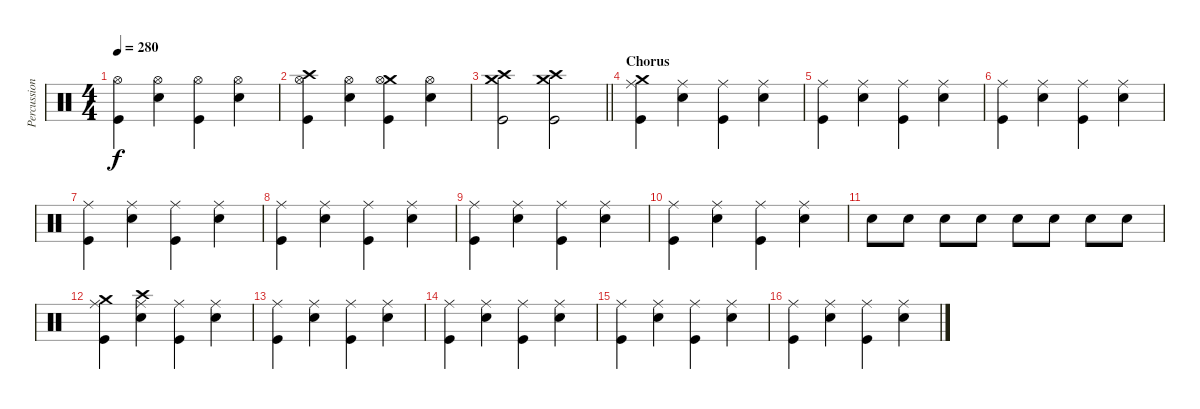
\track ("Percussion" "Percussion") {instrument percussion}
\staff {score}
\articulation defaults
\ts (4 4)
\tempo 280
\clef neutral
\ks c
("Hi-Hat (open)" "Kick (hit)").4{dy f} ("Hi-Hat (open)" "Snare (hit) 2").4 ("Hi-Hat (open)" "Kick (hit)").4 ("Hi-Hat (open)" "Snare (hit) 2").4 |
("Crash high (hit)" "Hi-Hat (open)" "Kick (hit)").4 ("Hi-Hat (open)" "Snare (hit) 2").4 ("Crash medium (hit)" "Hi-Hat (open)" "Kick (hit)").4 ("Hi-Hat (open)" "Snare (hit) 2").4 |
\barLineRight lightlight
("Crash medium (hit)" "Crash high (hit)" "Kick (hit)").2 ("Crash medium (hit)" "Crash high (hit)" "Kick (hit)").2 |
\section ("" "Chorus")
("Crash medium (hit)" "Ride (middle)" "Kick (hit)").4 ("Ride (middle)" "Snare (hit) 2").4 ("Ride (middle)" "Kick (hit)").4 ("Ride (middle)" "Snare (hit) 2").4 |
("Ride (middle)" "Kick (hit)").4 ("Ride (middle)" "Snare (hit) 2").4 ("Ride (middle)" "Kick (hit)").4 ("Ride (middle)" "Snare (hit) 2").4 |
("Ride (middle)" "Kick (hit)").4 ("Ride (middle)" "Snare (hit) 2").4 ("Ride (middle)" "Kick (hit)").4 ("Ride (middle)" "Snare (hit) 2").4 |
("Ride (middle)" "Kick (hit)").4 ("Ride (middle)" "Snare (hit) 2").4 ("Ride (middle)" "Kick (hit)").4 ("Ride (middle)" "Snare (hit) 2").4 |
("Ride (middle)" "Kick (hit)").4 ("Ride (middle)" "Snare (hit) 2").4 ("Ride (middle)" "Kick (hit)").4 ("Ride (middle)" "Snare (hit) 2").4 |
("Ride (middle)" "Kick (hit)").4 ("Ride (middle)" "Snare (hit) 2").4 ("Ride (middle)" "Kick (hit)").4 ("Ride (middle)" "Snare (hit) 2").4 |
("Ride (middle)" "Kick (hit)").4 ("Ride (middle)" "Snare (hit) 2").4 ("Ride (middle)" "Kick (hit)").4 ("Ride (middle)" "Snare (hit) 2").4 |
"Snare (hit) 2".8 "Snare (hit) 2".8 "Snare (hit) 2".8 "Snare (hit) 2".8 "Snare (hit) 2".8 "Snare (hit) 2".8 "Snare (hit) 2".8 "Snare (hit) 2".8 |
("Crash medium (hit)" "Ride (middle)" "Kick (hit)").4 ("Crash high (hit)" "Ride (middle)" "Snare (hit) 2").4 ("Ride (middle)" "Kick (hit)").4 ("Ride (middle)" "Snare (hit) 2").4 |
("Ride (middle)" "Kick (hit)").4 ("Ride (middle)" "Snare (hit) 2").4 ("Ride (middle)" "Kick (hit)").4 ("Ride (middle)" "Snare (hit) 2").4 |
("Ride (middle)" "Kick (hit)").4 ("Ride (middle)" "Snare (hit) 2").4 ("Ride (middle)" "Kick (hit)").4 ("Ride (middle)" "Snare (hit) 2").4 |
("Ride (middle)" "Kick (hit)").4 ("Ride (middle)" "Snare (hit) 2").4 ("Ride (middle)" "Kick (hit)").4 ("Ride (middle)" "Snare (hit) 2").4 |
("Ride (middle)" "Kick (hit)").4 ("Ride (middle)" "Snare (hit) 2").4 ("Ride (middle)" "Kick (hit)").4 ("Ride (middle)" "Snare (hit) 2").4
